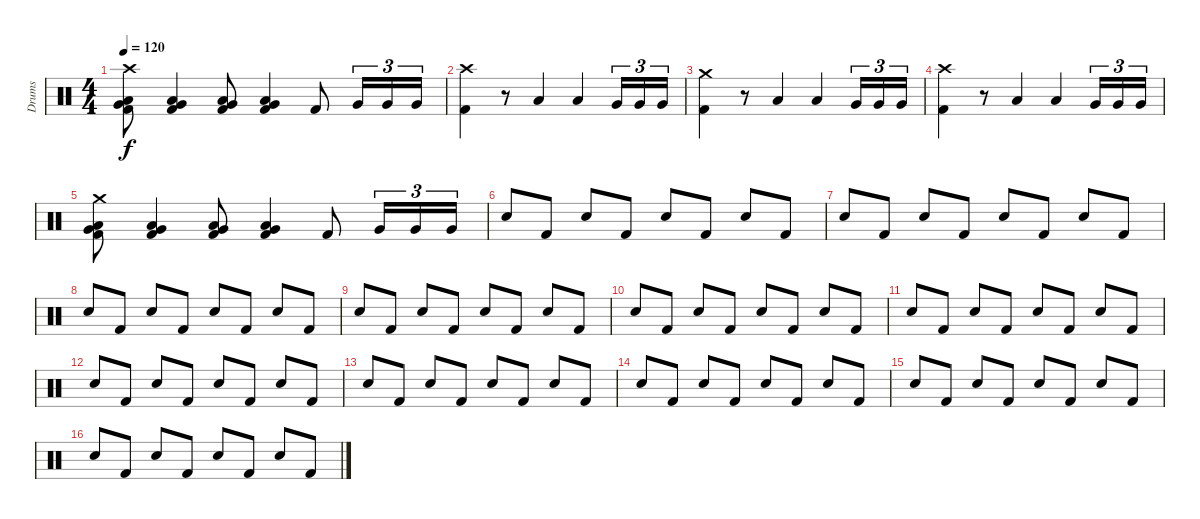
\track ("Drums" "Drums") {instrument percussion}
\staff {score}
\articulation defaults
\ts (4 4)
\tempo 120
\clef neutral
\ks c
("Crash high (hit)" "Very Low Tom (hit)" "Low Tom (hit)" "Kick (hit) 2").8{dy f} ("Very Low Tom (hit)" "Low Tom (hit)" "Kick (hit) 2").4 ("Very Low Tom (hit)" "Low Tom (hit)" "Kick (hit) 2").8 ("Low Tom (hit)" "Very Low Tom (hit)" "Kick (hit) 2").4 "Kick (hit) 2".8 "Very Low Tom (hit)".16{tu (3 2)} "Very Low Tom (hit)".16{tu (3 2)} "Very Low Tom (hit)".16{tu (3 2)} |
("Crash high (hit)" "Kick (hit) 2").4 r.8 "Low Floor Tom (hit)".4 "Low Tom (hit)".4 "Very Low Tom (hit)".16{tu (3 2)} "Very Low Tom (hit)".16{tu (3 2)} "Very Low Tom (hit)".16{tu (3 2)} |
("Crash medium (hit)" "Kick (hit) 2").4 r.8 "Low Floor Tom (hit)".4 "Low Tom (hit)".4 "Very Low Tom (hit)".16{tu (3 2)} "Very Low Tom (hit)".16{tu (3 2)} "Very Low Tom (hit)".16{tu (3 2)} |
("Crash high (hit)" "Kick (hit) 2").4 r.8 "Low Floor Tom (hit)".4 "Low Tom (hit)".4 "Very Low Tom (hit)".16{tu (3 2)} "Very Low Tom (hit)".16{tu (3 2)} "Very Low Tom (hit)".16{tu (3 2)} |
("Crash medium (hit)" "Very Low Tom (hit)" "Low Tom (hit)" "Kick (hit) 2").8 ("Very Low Tom (hit)" "Low Tom (hit)" "Kick (hit) 2").4 ("Very Low Tom (hit)" "Low Tom (hit)" "Kick (hit) 2").8 ("Low Tom (hit)" "Very Low Tom (hit)" "Kick (hit) 2").4 "Kick (hit) 2".8 "Very Low Tom (hit)".16{tu (3 2)} "Very Low Tom (hit)".16{tu (3 2)} "Very Low Tom (hit)".16{tu (3 2)} |
"Snare (hit) 2".8 "Kick (hit) 2".8 "Snare (hit) 2".8 "Kick (hit) 2".8 "Snare (hit) 2".8 "Kick (hit) 2".8 "Snare (hit) 2".8 "Kick (hit) 2".8 |
"Snare (hit) 2".8 "Kick (hit) 2".8 "Snare (hit) 2".8 "Kick (hit) 2".8 "Snare (hit) 2".8 "Kick (hit) 2".8 "Snare (hit) 2".8 "Kick (hit) 2".8 |
"Snare (hit) 2".8 "Kick (hit) 2".8 "Snare (hit) 2".8 "Kick (hit) 2".8 "Snare (hit) 2".8 "Kick (hit) 2".8 "Snare (hit) 2".8 "Kick (hit) 2".8 |
"Snare (hit) 2".8 "Kick (hit) 2".8 "Snare (hit) 2".8 "Kick (hit) 2".8 "Snare (hit) 2".8 "Kick (hit) 2".8 "Snare (hit) 2".8 "Kick (hit) 2".8 |
"Snare (hit) 2".8 "Kick (hit) 2".8 "Snare (hit) 2".8 "Kick (hit) 2".8 "Snare (hit) 2".8 "Kick (hit) 2".8 "Snare (hit) 2".8 "Kick (hit) 2".8 |
"Snare (hit) 2".8 "Kick (hit) 2".8 "Snare (hit) 2".8 "Kick (hit) 2".8 "Snare (hit) 2".8 "Kick (hit) 2".8 "Snare (hit) 2".8 "Kick (hit) 2".8 |
"Snare (hit) 2".8 "Kick (hit) 2".8 "Snare (hit) 2".8 "Kick (hit) 2".8 "Snare (hit) 2".8 "Kick (hit) 2".8 "Snare (hit) 2".8 "Kick (hit) 2".8 |
"Snare (hit) 2".8 "Kick (hit) 2".8 "Snare (hit) 2".8 "Kick (hit) 2".8 "Snare (hit) 2".8 "Kick (hit) 2".8 "Snare (hit) 2".8 "Kick (hit) 2".8 |
"Snare (hit) 2".8 "Kick (hit) 2".8 "Snare (hit) 2".8 "Kick (hit) 2".8 "Snare (hit) 2".8 "Kick (hit) 2".8 "Snare (hit) 2".8 "Kick (hit) 2".8 |
"Snare (hit) 2".8 "Kick (hit) 2".8 "Snare (hit) 2".8 "Kick (hit) 2".8 "Snare (hit) 2".8 "Kick (hit) 2".8 "Snare (hit) 2".8 "Kick (hit) 2".8 |
"Snare (hit) 2".8 "Kick (hit) 2".8 "Snare (hit) 2".8 "Kick (hit) 2".8 "Snare (hit) 2".8 "Kick (hit) 2".8 "Snare (hit) 2".8 "Kick (hit) 2".8
